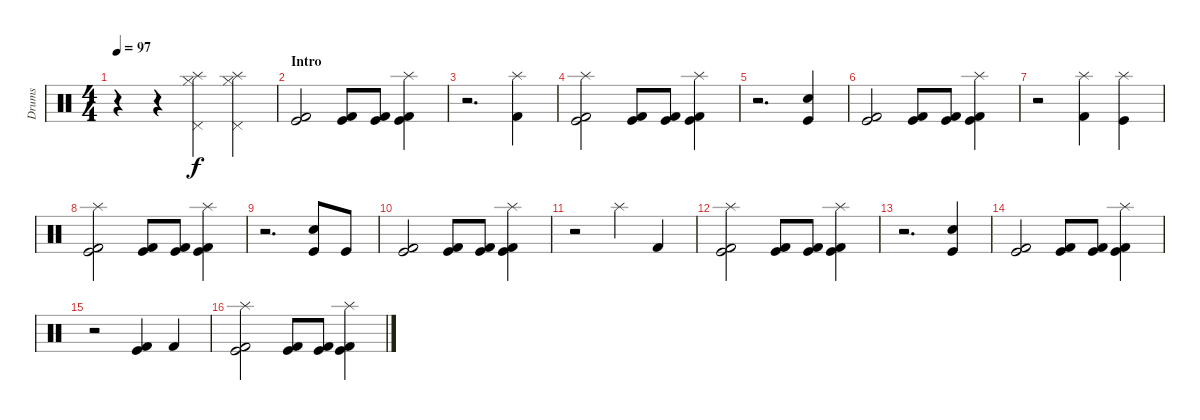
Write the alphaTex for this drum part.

\track ("Drums" "Drums") {instrument percussion}
\staff {score}
\articulation defaults
\ts (4 4)
\tempo 97
\clef neutral
\ks c
r.4{dy f} r.4 ("Splash (hit)" "Pedal Hi-Hat (hit)" "Hi-Hat (closed)").4 ("Splash (hit)" "Pedal Hi-Hat (hit)" "Hi-Hat (closed)").4 |
\section ("" "Intro")
("Kick (hit)" "Kick (hit) 2").2 ("Kick (hit)" "Kick (hit) 2").8 ("Kick (hit)" "Kick (hit) 2").8 ("Kick (hit)" "Kick (hit) 2" "Splash (hit)").4 |
r.2{d} ("Splash (hit)" "Kick (hit) 2").4 |
("Splash (hit)" "Kick (hit) 2" "Kick (hit)").2 ("Kick (hit) 2" "Kick (hit)").8 ("Kick (hit) 2" "Kick (hit)").8 ("Kick (hit) 2" "Kick (hit)" "Splash (hit)").4 |
r.2{d} ("Electric Snare (hit)" "Kick (hit)").4 |
("Kick (hit)" "Kick (hit) 2").2 ("Kick (hit)" "Kick (hit) 2").8 ("Kick (hit)" "Kick (hit) 2").8 ("Kick (hit)" "Kick (hit) 2" "Splash (hit)").4 |
r.2 ("Splash (hit)" "Kick (hit) 2").4 ("Splash (hit)" "Kick (hit)").4 |
("Splash (hit)" "Kick (hit) 2" "Kick (hit)").2 ("Kick (hit) 2" "Kick (hit)").8 ("Kick (hit) 2" "Kick (hit)").8 ("Kick (hit) 2" "Kick (hit)" "Splash (hit)").4 |
r.2{d} ("Electric Snare (hit)" "Kick (hit)").8 "Kick (hit)".8 |
("Kick (hit)" "Kick (hit) 2").2 ("Kick (hit)" "Kick (hit) 2").8 ("Kick (hit)" "Kick (hit) 2").8 ("Kick (hit)" "Kick (hit) 2" "Splash (hit)").4 |
r.2 "Splash (hit)".4 "Kick (hit) 2".4 |
("Splash (hit)" "Kick (hit) 2" "Kick (hit)").2 ("Kick (hit) 2" "Kick (hit)").8 ("Kick (hit) 2" "Kick (hit)").8 ("Kick (hit) 2" "Kick (hit)" "Splash (hit)").4 |
r.2{d} ("Electric Snare (hit)" "Kick (hit)").4 |
("Kick (hit)" "Kick (hit) 2").2 ("Kick (hit)" "Kick (hit) 2").8 ("Kick (hit)" "Kick (hit) 2").8 ("Kick (hit)" "Kick (hit) 2" "Splash (hit)").4 |
r.2 ("Kick (hit)" "Kick (hit) 2").4 "Kick (hit) 2".4 |
("Splash (hit)" "Kick (hit) 2" "Kick (hit)").2 ("Kick (hit) 2" "Kick (hit)").8 ("Kick (hit) 2" "Kick (hit)").8 ("Kick (hit) 2" "Kick (hit)" "Splash (hit)").4
